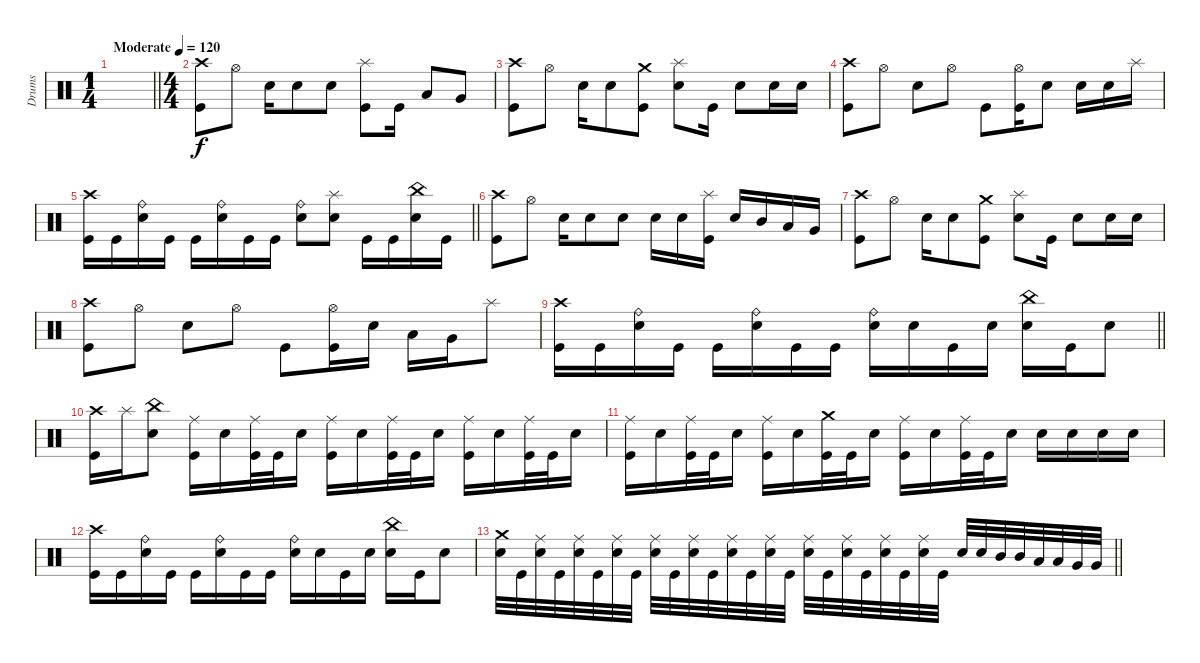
\track ("Drums" "Drums") {instrument percussion}
\staff
\articulation defaults
\ts (1 4)
\tempo (120 "Moderate")
\clef neutral
\barLineRight lightlight
\ks c
|
\ts (4 4)
("Crash high (hit)" "Kick (hit)").8 "Hi-Hat (open)".8 "Electric Snare (hit)".16 "Electric Snare (hit)".8 "Electric Snare (hit)".8 ("Splash (hit)" "Kick (hit)").8 "Kick (hit)".16 "Low Tom (hit)".8 "Very Low Tom (hit)".8 |
("Crash high (hit)" "Kick (hit)").8 "Hi-Hat (open)".8 "Electric Snare (hit)".16 "Electric Snare (hit)".8 ("Crash medium (hit)" "Kick (hit)").8 ("Splash (hit)" "Electric Snare (hit)").8 "Kick (hit)".16 "Electric Snare (hit)".8 "Electric Snare (hit)".16 "Electric Snare (hit)".16 |
("Crash high (hit)" "Kick (hit)").8 "Hi-Hat (open)".8 "Electric Snare (hit)".8 "Hi-Hat (open)".8 "Kick (hit)".8 ("Hi-Hat (open)" "Kick (hit)").16 "Electric Snare (hit)".8 "Electric Snare (hit)".16 "Electric Snare (hit)".16 "Splash (hit)".16 |
\barLineRight lightlight
("Crash high (hit)" "Kick (hit)").16 "Kick (hit)".16 ("Ride (bell)" "Electric Snare (hit)").16 "Kick (hit)".16 "Kick (hit)".16 ("Ride (bell)" "Electric Snare (hit)").16 "Kick (hit)".16 "Kick (hit)".16 ("Ride (bell)" "Electric Snare (hit)").8 ("Splash (hit)" "Electric Snare (hit)").8 "Kick (hit)".16 "Kick (hit)".16 ("China (hit)" "Electric Snare (hit)").16 "Kick (hit)".16 |
("Crash high (hit)" "Kick (hit)").8 "Hi-Hat (open)".8 "Electric Snare (hit)".16 "Electric Snare (hit)".8 "Electric Snare (hit)".8 "Electric Snare (hit)".16 "Electric Snare (hit)".16 ("Splash (hit)" "Kick (hit)").16 "Electric Snare (hit)".16 "Mid Tom (hit)".16 "Low Tom (hit)".16 "Very Low Tom (hit)".16 |
("Crash high (hit)" "Kick (hit)").8 "Hi-Hat (open)".8 "Electric Snare (hit)".16 "Electric Snare (hit)".8 ("Crash medium (hit)" "Kick (hit)").8 ("Splash (hit)" "Electric Snare (hit)").8 "Kick (hit)".16 "Electric Snare (hit)".8 "Electric Snare (hit)".16 "Electric Snare (hit)".16 |
("Crash high (hit)" "Kick (hit)").8 "Hi-Hat (open)".8 "Electric Snare (hit)".8 "Hi-Hat (open)".8 "Kick (hit)".8 ("Hi-Hat (open)" "Kick (hit)").16 "Electric Snare (hit)".16 "Low Tom (hit)".16 "Very Low Tom (hit)".16 "Splash (hit)".8 |
\barLineRight lightlight
("Crash high (hit)" "Kick (hit)").16 "Kick (hit)".16 ("Ride (bell)" "Electric Snare (hit)").16 "Kick (hit)".16 "Kick (hit)".16 ("Ride (bell)" "Electric Snare (hit)").16 "Kick (hit)".16 "Kick (hit)".16 ("Ride (bell)" "Electric Snare (hit)").16 "Electric Snare (hit)".16 "Kick (hit)".16 "Electric Snare (hit)".16 ("China (hit)" "Electric Snare (hit)").16 "Kick (hit)".16 "Electric Snare (hit)".8 |
("Crash high (hit)" "Kick (hit)").16 "Splash (hit)".16 ("China (hit)" "Electric Snare (hit)").8 ("Ride (middle)" "Kick (hit)").16 "Electric Snare (hit)".16 ("Ride (middle)" "Kick (hit)").32 "Kick (hit)".32 "Electric Snare (hit)".16 ("Ride (middle)" "Kick (hit)").16 "Electric Snare (hit)".16 ("Ride (middle)" "Kick (hit)").32 "Kick (hit)".32 "Electric Snare (hit)".16 ("Ride (middle)" "Kick (hit)").16 "Electric Snare (hit)".16 ("Ride (middle)" "Kick (hit)").32 "Kick (hit)".32 "Electric Snare (hit)".16 |
("Ride (middle)" "Kick (hit)").16 "Electric Snare (hit)".16 ("Ride (middle)" "Kick (hit)").32 "Kick (hit)".32 "Electric Snare (hit)".16 ("Ride (middle)" "Kick (hit)").16 "Electric Snare (hit)".16 ("Crash medium (hit)" "Kick (hit)").32 "Kick (hit)".32 "Electric Snare (hit)".16 ("Ride (middle)" "Kick (hit)").16 "Electric Snare (hit)".16 ("Ride (middle)" "Kick (hit)").32 "Kick (hit)".32 "Electric Snare (hit)".16 "Electric Snare (hit)".16 "Electric Snare (hit)".16 "Electric Snare (hit)".16 "Electric Snare (hit)".16 |
("Crash high (hit)" "Kick (hit)").16 "Kick (hit)".16 ("Ride (bell)" "Electric Snare (hit)").16 "Kick (hit)".16 "Kick (hit)".16 ("Ride (bell)" "Electric Snare (hit)").16 "Kick (hit)".16 "Kick (hit)".16 ("Ride (bell)" "Electric Snare (hit)").16 "Electric Snare (hit)".16 "Kick (hit)".16 "Electric Snare (hit)".16 ("China (hit)" "Electric Snare (hit)").16 "Kick (hit)".16 "Electric Snare (hit)".8 |
\barLineRight lightlight
("Crash medium (hit)" "Electric Snare (hit)").32 "Kick (hit)".32 ("Ride (middle)" "Electric Snare (hit)").32 "Kick (hit)".32 ("Ride (middle)" "Electric Snare (hit)").32 "Kick (hit)".32 ("Ride (middle)" "Electric Snare (hit)").32 "Kick (hit)".32 ("Ride (middle)" "Electric Snare (hit)").32 "Kick (hit)".32 ("Ride (middle)" "Electric Snare (hit)").32 "Kick (hit)".32 ("Ride (middle)" "Electric Snare (hit)").32 "Kick (hit)".32 ("Ride (middle)" "Electric Snare (hit)").32 "Kick (hit)".32 ("Ride (middle)" "Electric Snare (hit)").32 "Kick (hit)".32 ("Ride (middle)" "Electric Snare (hit)").32 "Kick (hit)".32 ("Ride (middle)" "Electric Snare (hit)").32 "Kick (hit)".32 ("Ride (middle)" "Electric Snare (hit)").32 "Kick (hit)".32 "Electric Snare (hit)".32 "Electric Snare (hit)".32 "Mid Tom (hit)".32 "Mid Tom (hit)".32 "Low Tom (hit)".32 "Low Tom (hit)".32 "Very Low Tom (hit)".32 "Very Low Tom (hit)".32
